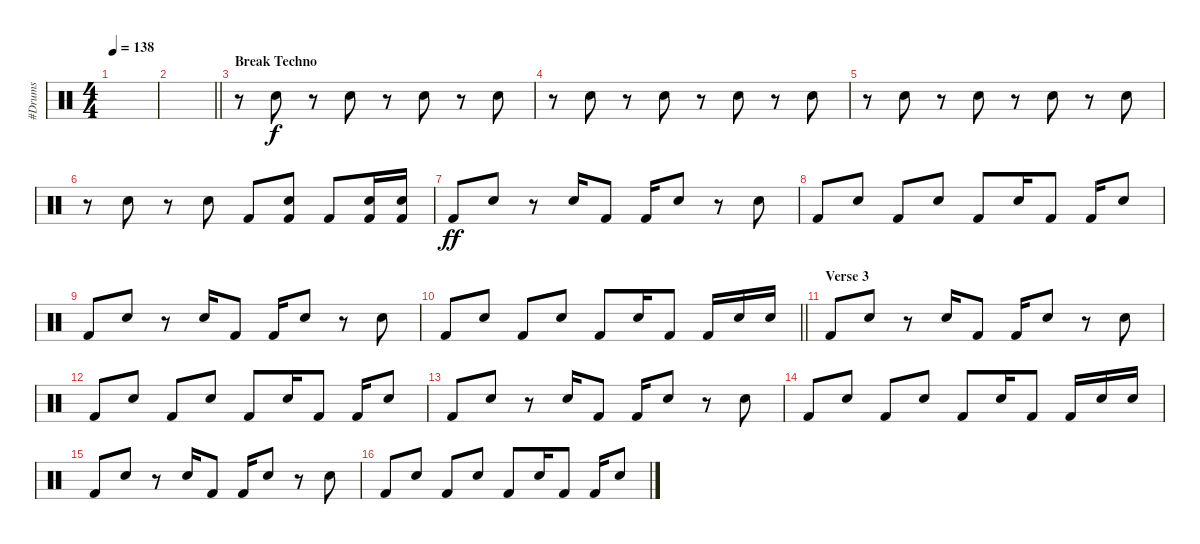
\track ("#Drums" "#Drums") {instrument percussion}
\staff {score}
\articulation defaults
\ts (4 4)
\tempo 138
\clef neutral
\ks c
|
\barLineRight lightlight
|
\section ("" "Break Techno")
r.8 "Snare (hit) 2".8 r.8 "Snare (hit) 2".8 r.8 "Snare (hit) 2".8 r.8 "Snare (hit) 2".8 |
r.8 "Snare (hit) 2".8 r.8 "Snare (hit) 2".8 r.8 "Snare (hit) 2".8 r.8 "Snare (hit) 2".8 |
r.8 "Snare (hit) 2".8 r.8 "Snare (hit) 2".8 r.8 "Snare (hit) 2".8 r.8 "Snare (hit) 2".8 |
r.8 "Snare (hit) 2".8 r.8 "Snare (hit) 2".8 "Kick (hit) 2".8 ("Kick (hit) 2" "Snare (hit) 2").8 "Kick (hit) 2".8 ("Kick (hit) 2" "Snare (hit) 2").16 ("Kick (hit) 2" "Snare (hit) 2").16 |
"Kick (hit) 2".8{dy ff} "Snare (hit) 2".8 r.8 "Snare (hit) 2".16 "Kick (hit) 2".8 "Kick (hit) 2".16 "Snare (hit) 2".8 r.8 "Snare (hit) 2".8 |
"Kick (hit) 2".8 "Snare (hit) 2".8 "Kick (hit) 2".8 "Snare (hit) 2".8 "Kick (hit) 2".8 "Snare (hit) 2".16 "Kick (hit) 2".8 "Kick (hit) 2".16 "Snare (hit) 2".8 |
"Kick (hit) 2".8 "Snare (hit) 2".8 r.8 "Snare (hit) 2".16 "Kick (hit) 2".8 "Kick (hit) 2".16 "Snare (hit) 2".8 r.8 "Snare (hit) 2".8 |
\barLineRight lightlight "Kick (hit) 2".8 "Snare (hit) 2".8 "Kick (hit) 2".8 "Snare (hit) 2".8 "Kick (hit) 2".8 "Snare (hit) 2".16 "Kick (hit) 2".8 "Kick (hit) 2".16 "Snare (hit) 2".16 "Snare (hit) 2".16
|
\section ("" "Verse 3")
"Kick (hit) 2".8 "Snare (hit) 2".8 r.8 "Snare (hit) 2".16 "Kick (hit) 2".8 "Kick (hit) 2".16 "Snare (hit) 2".8 r.8 "Snare (hit) 2".8 |
"Kick (hit) 2".8 "Snare (hit) 2".8 "Kick (hit) 2".8 "Snare (hit) 2".8 "Kick (hit) 2".8 "Snare (hit) 2".16 "Kick (hit) 2".8 "Kick (hit) 2".16 "Snare (hit) 2".8 |
"Kick (hit) 2".8 "Snare (hit) 2".8 r.8 "Snare (hit) 2".16 "Kick (hit) 2".8 "Kick (hit) 2".16 "Snare (hit) 2".8 r.8 "Snare (hit) 2".8 |
"Kick (hit) 2".8 "Snare (hit) 2".8 "Kick (hit) 2".8 "Snare (hit) 2".8 "Kick (hit) 2".8 "Snare (hit) 2".16 "Kick (hit) 2".8 "Kick (hit) 2".16 "Snare (hit) 2".16 "Snare (hit) 2".16 |
"Kick (hit) 2".8 "Snare (hit) 2".8 r.8 "Snare (hit) 2".16 "Kick (hit) 2".8 "Kick (hit) 2".16 "Snare (hit) 2".8 r.8 "Snare (hit) 2".8 |
"Kick (hit) 2".8 "Snare (hit) 2".8 "Kick (hit) 2".8 "Snare (hit) 2".8 "Kick (hit) 2".8 "Snare (hit) 2".16 "Kick (hit) 2".8 "Kick (hit) 2".16 "Snare (hit) 2".8
